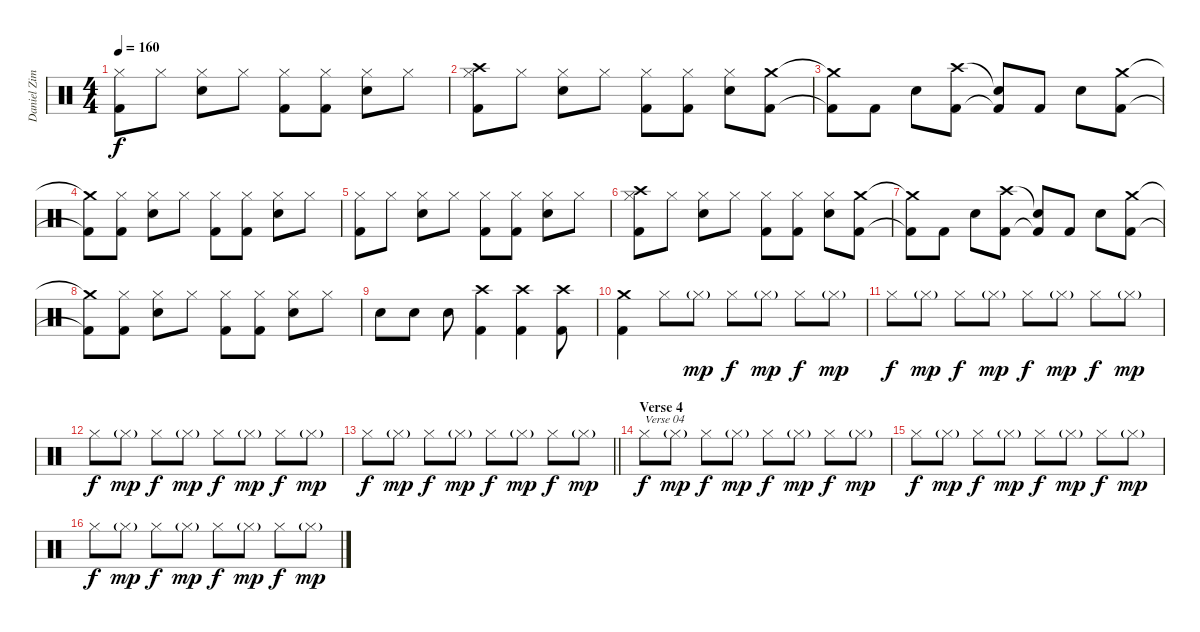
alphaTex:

\track ("Daniel Zimmermann" "Daniel Zim") {instrument percussion}
\staff {score}
\articulation defaults
\ts (4 4)
\tempo 160
\clef neutral
\ks c
("Hi-Hat (closed)" "Kick (hit) 2").8{dy f} "Hi-Hat (closed)".8 ("Hi-Hat (closed)" "Snare (hit) 2").8 "Hi-Hat (closed)".8 ("Hi-Hat (closed)" "Kick (hit) 2").8 ("Hi-Hat (closed)" "Kick (hit) 2").8 ("Hi-Hat (closed)" "Snare (hit) 2").8 "Hi-Hat (closed)".8 |
("Hi-Hat (closed)" "Kick (hit) 2" "Crash high (hit)").8 "Hi-Hat (closed)".8 ("Hi-Hat (closed)" "Snare (hit) 2").8 "Hi-Hat (closed)".8 ("Hi-Hat (closed)" "Kick (hit) 2").8 ("Hi-Hat (closed)" "Kick (hit) 2").8 ("Hi-Hat (closed)" "Snare (hit) 2").8 ("Kick (hit) 2" "Crash medium (hit)").8 |
("Kick (hit) 2"{t} "Crash medium (hit)"{t}).8 "Kick (hit) 2".8 "Snare (hit) 2".8 ("Kick (hit) 2" "Crash high (hit)").8 ("Kick (hit) 2"{t} "Snare (hit)"{t}).8 "Kick (hit) 2".8 "Snare (hit) 2".8 ("Kick (hit) 2" "Crash medium (hit)").8 |
("Kick (hit) 2"{t} "Crash medium (hit)"{t}).8 ("Hi-Hat (closed)" "Kick (hit) 2").8 ("Hi-Hat (closed)" "Snare (hit) 2").8 "Hi-Hat (closed)".8 ("Hi-Hat (closed)" "Kick (hit) 2").8 ("Hi-Hat (closed)" "Kick (hit) 2").8 ("Hi-Hat (closed)" "Snare (hit) 2").8 "Hi-Hat (closed)".8 |
("Hi-Hat (closed)" "Kick (hit) 2").8 "Hi-Hat (closed)".8 ("Hi-Hat (closed)" "Snare (hit) 2").8 "Hi-Hat (closed)".8 ("Hi-Hat (closed)" "Kick (hit) 2").8 ("Hi-Hat (closed)" "Kick (hit) 2").8 ("Hi-Hat (closed)" "Snare (hit) 2").8 "Hi-Hat (closed)".8 |
("Hi-Hat (closed)" "Kick (hit) 2" "Crash high (hit)").8 "Hi-Hat (closed)".8 ("Hi-Hat (closed)" "Snare (hit) 2").8 "Hi-Hat (closed)".8 ("Hi-Hat (closed)" "Kick (hit) 2").8 ("Hi-Hat (closed)" "Kick (hit) 2").8 ("Hi-Hat (closed)" "Snare (hit) 2").8 ("Kick (hit) 2" "Crash medium (hit)").8 |
("Kick (hit) 2"{t} "Crash medium (hit)"{t}).8 "Kick (hit) 2".8 "Snare (hit) 2".8 ("Kick (hit) 2" "Crash high (hit)").8 ("Kick (hit) 2"{t} "Snare (hit)"{t}).8 "Kick (hit) 2".8 "Snare (hit) 2".8 ("Kick (hit) 2" "Crash medium (hit)").8 |
("Kick (hit) 2"{t} "Crash medium (hit)"{t}).8 ("Hi-Hat (closed)" "Kick (hit) 2").8 ("Hi-Hat (closed)" "Snare (hit) 2").8 "Hi-Hat (closed)".8 ("Hi-Hat (closed)" "Kick (hit) 2").8 ("Hi-Hat (closed)" "Kick (hit) 2").8 ("Hi-Hat (closed)" "Snare (hit) 2").8 "Hi-Hat (closed)".8 |
"Snare (hit) 2".8 "Snare (hit) 2".8 "Snare (hit) 2".8 ("Kick (hit) 2" "Crash high (hit)").4 ("Kick (hit) 2" "Crash high (hit)").4 ("Kick (hit) 2" "Crash high (hit)").8 |
("Kick (hit) 2" "Crash medium (hit)").4 "Hi-Hat (closed)".8 "Hi-Hat (closed)"{g}.8{dy mp} "Hi-Hat (closed)".8{dy f} "Hi-Hat (closed)"{g}.8{dy mp} "Hi-Hat (closed)".8{dy f} "Hi-Hat (closed)"{g}.8{dy mp} |
"Hi-Hat (closed)".8{dy f} "Hi-Hat (closed)"{g}.8{dy mp} "Hi-Hat (closed)".8{dy f} "Hi-Hat (closed)"{g}.8{dy mp} "Hi-Hat (closed)".8{dy f} "Hi-Hat (closed)"{g}.8{dy mp} "Hi-Hat (closed)".8{dy f} "Hi-Hat (closed)"{g}.8{dy mp} |
"Hi-Hat (closed)".8{dy f} "Hi-Hat (closed)"{g}.8{dy mp} "Hi-Hat (closed)".8{dy f} "Hi-Hat (closed)"{g}.8{dy mp} "Hi-Hat (closed)".8{dy f} "Hi-Hat (closed)"{g}.8{dy mp} "Hi-Hat (closed)".8{dy f} "Hi-Hat (closed)"{g}.8{dy mp} |
\barLineRight lightlight "Hi-Hat (closed)".8{dy f} "Hi-Hat (closed)"{g}.8{dy mp} "Hi-Hat (closed)".8{dy f} "Hi-Hat (closed)"{g}.8{dy mp} "Hi-Hat (closed)".8{dy f} "Hi-Hat (closed)"{g}.8{dy mp} "Hi-Hat (closed)".8{dy f} "Hi-Hat (closed)"{g}.8{dy mp}
|
\section ("" "Verse 4")
"Hi-Hat (closed)".8{txt "Verse 04" dy f} "Hi-Hat (closed)"{g}.8{dy mp} "Hi-Hat (closed)".8{dy f} "Hi-Hat (closed)"{g}.8{dy mp} "Hi-Hat (closed)".8{dy f} "Hi-Hat (closed)"{g}.8{dy mp} "Hi-Hat (closed)".8{dy f} "Hi-Hat (closed)"{g}.8{dy mp} |
"Hi-Hat (closed)".8{dy f} "Hi-Hat (closed)"{g}.8{dy mp} "Hi-Hat (closed)".8{dy f} "Hi-Hat (closed)"{g}.8{dy mp} "Hi-Hat (closed)".8{dy f} "Hi-Hat (closed)"{g}.8{dy mp} "Hi-Hat (closed)".8{dy f} "Hi-Hat (closed)"{g}.8{dy mp} |
"Hi-Hat (closed)".8{dy f} "Hi-Hat (closed)"{g}.8{dy mp} "Hi-Hat (closed)".8{dy f} "Hi-Hat (closed)"{g}.8{dy mp} "Hi-Hat (closed)".8{dy f} "Hi-Hat (closed)"{g}.8{dy mp} "Hi-Hat (closed)".8{dy f} "Hi-Hat (closed)"{g}.8{dy mp}
